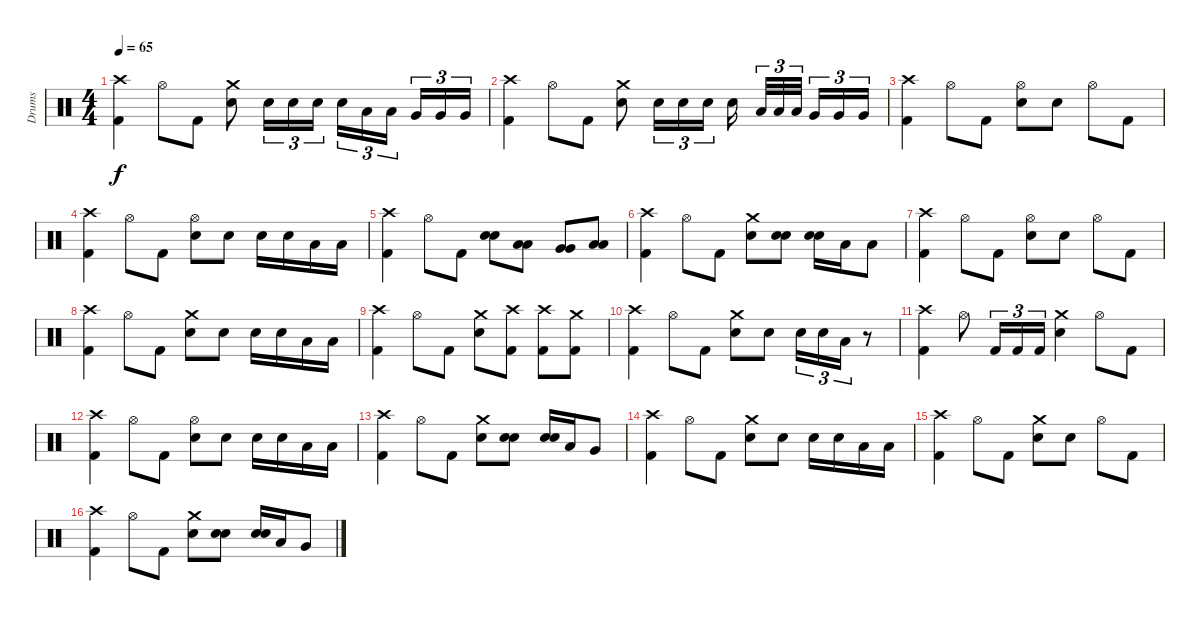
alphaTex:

\track ("Drums" "Drums") {instrument percussion}
\staff {score}
\articulation defaults
\ts (4 4)
\tempo 65
\clef neutral
\ks c
("Crash high (hit)" "Kick (hit) 2").4{dy f} "Hi-Hat (open)".8 "Kick (hit) 2".8 ("Crash medium (hit)" "Electric Snare (hit)").8 "Electric Snare (hit)".16{tu (3 2)} "Electric Snare (hit)".16{tu (3 2)} "Electric Snare (hit)".16{tu (3 2)} "Electric Snare (hit)".16{tu (3 2)} "Low Tom (hit)".16{tu (3 2)} "Low Tom (hit)".16{tu (3 2)} "Very Low Tom (hit)".16{tu (3 2)} "Very Low Tom (hit)".16{tu (3 2)} "Very Low Tom (hit)".16{tu (3 2)} |
("Crash high (hit)" "Kick (hit) 2").4 "Hi-Hat (open)".8 "Kick (hit) 2".8 ("Crash medium (hit)" "Electric Snare (hit)").8 "Electric Snare (hit)".16{tu (3 2)} "Electric Snare (hit)".16{tu (3 2)} "Electric Snare (hit)".16{tu (3 2)} "Electric Snare (hit)".16 "Low Tom (hit)".32{tu (3 2)} "Low Tom (hit)".32{tu (3 2)} "Low Tom (hit)".32{tu (3 2)} "Very Low Tom (hit)".16{tu (3 2)} "Very Low Tom (hit)".16{tu (3 2)} "Very Low Tom (hit)".16{tu (3 2)} |
("Crash high (hit)" "Kick (hit) 2").4 "Hi-Hat (open)".8 "Kick (hit) 2".8 ("Hi-Hat (open)" "Electric Snare (hit)").8 "Electric Snare (hit)".8 "Hi-Hat (open)".8 "Kick (hit) 2".8 |
("Crash high (hit)" "Kick (hit) 2").4 "Hi-Hat (open)".8 "Kick (hit) 2".8 ("Hi-Hat (open)" "Electric Snare (hit)").8 "Electric Snare (hit)".8 "Electric Snare (hit)".16 "Electric Snare (hit)".16 "Low Tom (hit)".16 "Low Tom (hit)".16 |
("Crash high (hit)" "Kick (hit) 2").4 "Hi-Hat (open)".8 "Kick (hit) 2".8 ("Electric Snare (hit)" "Electric Snare (hit)").8{bu 60} ("Low Tom (hit)" "Low Tom (hit)").8{bu 60} ("Very Low Tom (hit)" "Very Low Tom (hit)").8{bu 60} ("Low Floor Tom (hit)" "Low Floor Tom (hit)").8{bu 60} |
("Crash high (hit)" "Kick (hit) 2").4 "Hi-Hat (open)".8 "Kick (hit) 2".8 ("Crash medium (hit)" "Electric Snare (hit)").8 ("Electric Snare (hit)" "Electric Snare (hit)").8{bu 60} ("Electric Snare (hit)" "Electric Snare (hit)").16{bu 60} "Low Tom (hit)".16 "Low Tom (hit)".8 |
("Crash high (hit)" "Kick (hit) 2").4 "Hi-Hat (open)".8 "Kick (hit) 2".8 ("Hi-Hat (open)" "Electric Snare (hit)").8 "Electric Snare (hit)".8 "Hi-Hat (open)".8 "Kick (hit) 2".8 |
("Crash high (hit)" "Kick (hit) 2").4 "Hi-Hat (open)".8 "Kick (hit) 2".8 ("Crash medium (hit)" "Electric Snare (hit)").8 "Electric Snare (hit)".8 "Electric Snare (hit)".16 "Electric Snare (hit)".16 "Low Tom (hit)".16 "Low Tom (hit)".16 |
("Crash high (hit)" "Kick (hit) 2").4 "Hi-Hat (open)".8 "Kick (hit) 2".8 ("Crash medium (hit)" "Electric Snare (hit)").8 ("Crash high (hit)" "Kick (hit) 2").8 ("Crash high (hit)" "Kick (hit) 2").8 ("Crash medium (hit)" "Kick (hit) 2").8 |
("Crash high (hit)" "Kick (hit) 2").4 "Hi-Hat (open)".8 "Kick (hit) 2".8 ("Crash medium (hit)" "Electric Snare (hit)").8 "Electric Snare (hit)".8 "Electric Snare (hit)".16{tu (3 2)} "Electric Snare (hit)".16{tu (3 2)} "Low Tom (hit)".16{tu (3 2)} r.8 |
("Crash high (hit)" "Kick (hit) 2").4 "Hi-Hat (open)".8 "Kick (hit) 2".16{tu (3 2)} "Kick (hit) 2".16{tu (3 2)} "Kick (hit) 2".16{tu (3 2)} ("Crash medium (hit)" "Electric Snare (hit)").4 "Hi-Hat (open)".8 "Kick (hit) 2".8 |
("Crash high (hit)" "Kick (hit) 2").4 "Hi-Hat (open)".8 "Kick (hit) 2".8 ("Hi-Hat (open)" "Electric Snare (hit)").8 "Electric Snare (hit)".8 "Electric Snare (hit)".16 "Electric Snare (hit)".16 "Low Tom (hit)".16 "Low Tom (hit)".16 |
("Crash high (hit)" "Kick (hit) 2").4 "Hi-Hat (open)".8 "Kick (hit) 2".8 ("Crash medium (hit)" "Electric Snare (hit)").8 ("Electric Snare (hit)" "Electric Snare (hit)").8{bu 60} ("Electric Snare (hit)" "Electric Snare (hit)").16{bu 60} "Low Tom (hit)".16 "Very Low Tom (hit)".8 |
("Crash high (hit)" "Kick (hit) 2").4 "Hi-Hat (open)".8 "Kick (hit) 2".8 ("Crash medium (hit)" "Electric Snare (hit)").8 "Electric Snare (hit)".8 "Electric Snare (hit)".16 "Electric Snare (hit)".16 "Low Tom (hit)".16 "Low Tom (hit)".16 |
("Crash high (hit)" "Kick (hit) 2").4 "Hi-Hat (open)".8 "Kick (hit) 2".8 ("Crash medium (hit)" "Electric Snare (hit)").8 "Electric Snare (hit)".8 "Hi-Hat (open)".8 "Kick (hit) 2".8 |
("Crash high (hit)" "Kick (hit) 2").4 "Hi-Hat (open)".8 "Kick (hit) 2".8 ("Crash medium (hit)" "Electric Snare (hit)").8 ("Electric Snare (hit)" "Electric Snare (hit)").8{bu 60} ("Electric Snare (hit)" "Electric Snare (hit)").16{bu 60} "Low Tom (hit)".16 "Very Low Tom (hit)".8
